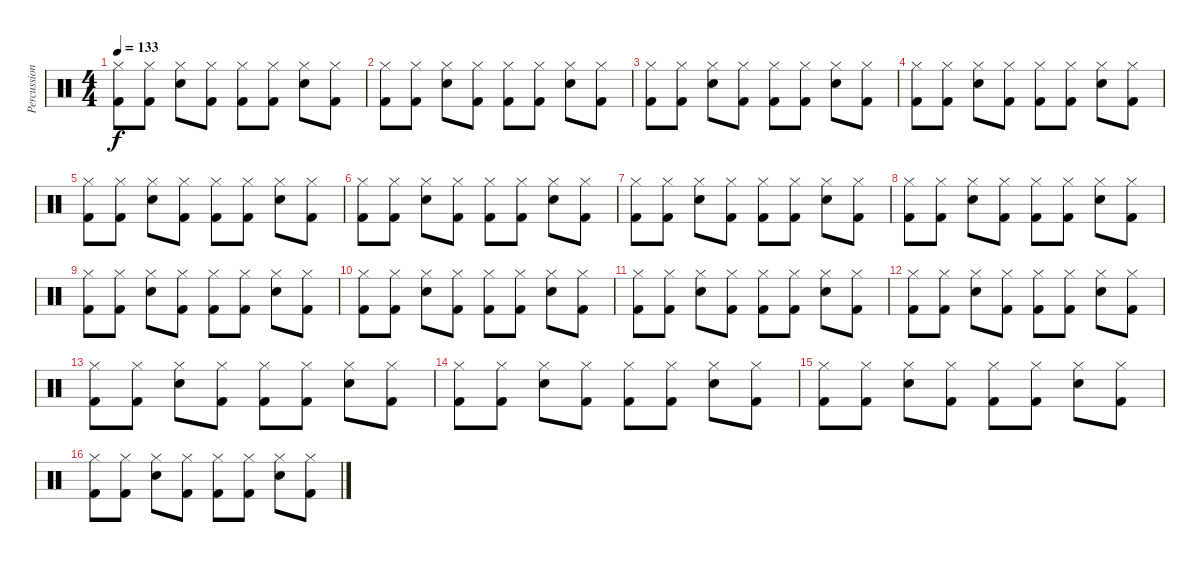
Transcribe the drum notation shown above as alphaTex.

\track ("Percussion" "Percussion") {instrument percussion}
\staff {score}
\articulation defaults
\ts (4 4)
\tempo 133
\clef neutral
\ks c
("Hi-Hat (closed)" "Kick (hit) 2").8{dy f} ("Hi-Hat (closed)" "Kick (hit) 2").8 ("Electric Snare (hit)" "Hi-Hat (closed)").8 ("Hi-Hat (closed)" "Kick (hit) 2").8 ("Hi-Hat (closed)" "Kick (hit) 2").8 ("Hi-Hat (closed)" "Kick (hit) 2").8 ("Electric Snare (hit)" "Hi-Hat (closed)").8 ("Hi-Hat (closed)" "Kick (hit) 2").8 |
("Hi-Hat (closed)" "Kick (hit) 2").8 ("Hi-Hat (closed)" "Kick (hit) 2").8 ("Electric Snare (hit)" "Hi-Hat (closed)").8 ("Hi-Hat (closed)" "Kick (hit) 2").8 ("Hi-Hat (closed)" "Kick (hit) 2").8 ("Hi-Hat (closed)" "Kick (hit) 2").8 ("Electric Snare (hit)" "Hi-Hat (closed)").8 ("Hi-Hat (closed)" "Kick (hit) 2").8 |
("Hi-Hat (closed)" "Kick (hit) 2").8 ("Hi-Hat (closed)" "Kick (hit) 2").8 ("Electric Snare (hit)" "Hi-Hat (closed)").8 ("Hi-Hat (closed)" "Kick (hit) 2").8 ("Hi-Hat (closed)" "Kick (hit) 2").8 ("Hi-Hat (closed)" "Kick (hit) 2").8 ("Electric Snare (hit)" "Hi-Hat (closed)").8 ("Hi-Hat (closed)" "Kick (hit) 2").8 |
("Hi-Hat (closed)" "Kick (hit) 2").8 ("Hi-Hat (closed)" "Kick (hit) 2").8 ("Electric Snare (hit)" "Hi-Hat (closed)").8 ("Hi-Hat (closed)" "Kick (hit) 2").8 ("Hi-Hat (closed)" "Kick (hit) 2").8 ("Hi-Hat (closed)" "Kick (hit) 2").8 ("Electric Snare (hit)" "Hi-Hat (closed)").8 ("Hi-Hat (closed)" "Kick (hit) 2").8 |
("Hi-Hat (closed)" "Kick (hit) 2").8 ("Hi-Hat (closed)" "Kick (hit) 2").8 ("Electric Snare (hit)" "Hi-Hat (closed)").8 ("Hi-Hat (closed)" "Kick (hit) 2").8 ("Hi-Hat (closed)" "Kick (hit) 2").8 ("Hi-Hat (closed)" "Kick (hit) 2").8 ("Electric Snare (hit)" "Hi-Hat (closed)").8 ("Hi-Hat (closed)" "Kick (hit) 2").8 |
("Hi-Hat (closed)" "Kick (hit) 2").8 ("Hi-Hat (closed)" "Kick (hit) 2").8 ("Electric Snare (hit)" "Hi-Hat (closed)").8 ("Hi-Hat (closed)" "Kick (hit) 2").8 ("Hi-Hat (closed)" "Kick (hit) 2").8 ("Hi-Hat (closed)" "Kick (hit) 2").8 ("Electric Snare (hit)" "Hi-Hat (closed)").8 ("Hi-Hat (closed)" "Kick (hit) 2").8 |
("Hi-Hat (closed)" "Kick (hit) 2").8 ("Hi-Hat (closed)" "Kick (hit) 2").8 ("Electric Snare (hit)" "Hi-Hat (closed)").8 ("Hi-Hat (closed)" "Kick (hit) 2").8 ("Hi-Hat (closed)" "Kick (hit) 2").8 ("Hi-Hat (closed)" "Kick (hit) 2").8 ("Electric Snare (hit)" "Hi-Hat (closed)").8 ("Hi-Hat (closed)" "Kick (hit) 2").8 |
("Hi-Hat (closed)" "Kick (hit) 2").8 ("Hi-Hat (closed)" "Kick (hit) 2").8 ("Electric Snare (hit)" "Hi-Hat (closed)").8 ("Hi-Hat (closed)" "Kick (hit) 2").8 ("Hi-Hat (closed)" "Kick (hit) 2").8 ("Hi-Hat (closed)" "Kick (hit) 2").8 ("Electric Snare (hit)" "Hi-Hat (closed)").8 ("Hi-Hat (closed)" "Kick (hit) 2").8 |
("Hi-Hat (closed)" "Kick (hit) 2").8 ("Hi-Hat (closed)" "Kick (hit) 2").8 ("Electric Snare (hit)" "Hi-Hat (closed)").8 ("Hi-Hat (closed)" "Kick (hit) 2").8 ("Hi-Hat (closed)" "Kick (hit) 2").8 ("Hi-Hat (closed)" "Kick (hit) 2").8 ("Electric Snare (hit)" "Hi-Hat (closed)").8 ("Hi-Hat (closed)" "Kick (hit) 2").8 |
("Hi-Hat (closed)" "Kick (hit) 2").8 ("Hi-Hat (closed)" "Kick (hit) 2").8 ("Electric Snare (hit)" "Hi-Hat (closed)").8 ("Hi-Hat (closed)" "Kick (hit) 2").8 ("Hi-Hat (closed)" "Kick (hit) 2").8 ("Hi-Hat (closed)" "Kick (hit) 2").8 ("Electric Snare (hit)" "Hi-Hat (closed)").8 ("Hi-Hat (closed)" "Kick (hit) 2").8 |
("Hi-Hat (closed)" "Kick (hit) 2").8 ("Hi-Hat (closed)" "Kick (hit) 2").8 ("Electric Snare (hit)" "Hi-Hat (closed)").8 ("Hi-Hat (closed)" "Kick (hit) 2").8 ("Hi-Hat (closed)" "Kick (hit) 2").8 ("Hi-Hat (closed)" "Kick (hit) 2").8 ("Electric Snare (hit)" "Hi-Hat (closed)").8 ("Hi-Hat (closed)" "Kick (hit) 2").8 |
("Hi-Hat (closed)" "Kick (hit) 2").8 ("Hi-Hat (closed)" "Kick (hit) 2").8 ("Electric Snare (hit)" "Hi-Hat (closed)").8 ("Hi-Hat (closed)" "Kick (hit) 2").8 ("Hi-Hat (closed)" "Kick (hit) 2").8 ("Hi-Hat (closed)" "Kick (hit) 2").8 ("Electric Snare (hit)" "Hi-Hat (closed)").8 ("Hi-Hat (closed)" "Kick (hit) 2").8 |
("Hi-Hat (closed)" "Kick (hit) 2").8 ("Hi-Hat (closed)" "Kick (hit) 2").8 ("Electric Snare (hit)" "Hi-Hat (closed)").8 ("Hi-Hat (closed)" "Kick (hit) 2").8 ("Hi-Hat (closed)" "Kick (hit) 2").8 ("Hi-Hat (closed)" "Kick (hit) 2").8 ("Electric Snare (hit)" "Hi-Hat (closed)").8 ("Hi-Hat (closed)" "Kick (hit) 2").8 |
("Hi-Hat (closed)" "Kick (hit) 2").8 ("Hi-Hat (closed)" "Kick (hit) 2").8 ("Electric Snare (hit)" "Hi-Hat (closed)").8 ("Hi-Hat (closed)" "Kick (hit) 2").8 ("Hi-Hat (closed)" "Kick (hit) 2").8 ("Hi-Hat (closed)" "Kick (hit) 2").8 ("Electric Snare (hit)" "Hi-Hat (closed)").8 ("Hi-Hat (closed)" "Kick (hit) 2").8 |
("Hi-Hat (closed)" "Kick (hit) 2").8 ("Hi-Hat (closed)" "Kick (hit) 2").8 ("Electric Snare (hit)" "Hi-Hat (closed)").8 ("Hi-Hat (closed)" "Kick (hit) 2").8 ("Hi-Hat (closed)" "Kick (hit) 2").8 ("Hi-Hat (closed)" "Kick (hit) 2").8 ("Electric Snare (hit)" "Hi-Hat (closed)").8 ("Hi-Hat (closed)" "Kick (hit) 2").8 |
("Hi-Hat (closed)" "Kick (hit) 2").8 ("Hi-Hat (closed)" "Kick (hit) 2").8 ("Electric Snare (hit)" "Hi-Hat (closed)").8 ("Hi-Hat (closed)" "Kick (hit) 2").8 ("Hi-Hat (closed)" "Kick (hit) 2").8 ("Hi-Hat (closed)" "Kick (hit) 2").8 ("Electric Snare (hit)" "Hi-Hat (closed)").8 ("Hi-Hat (closed)" "Kick (hit) 2").8
